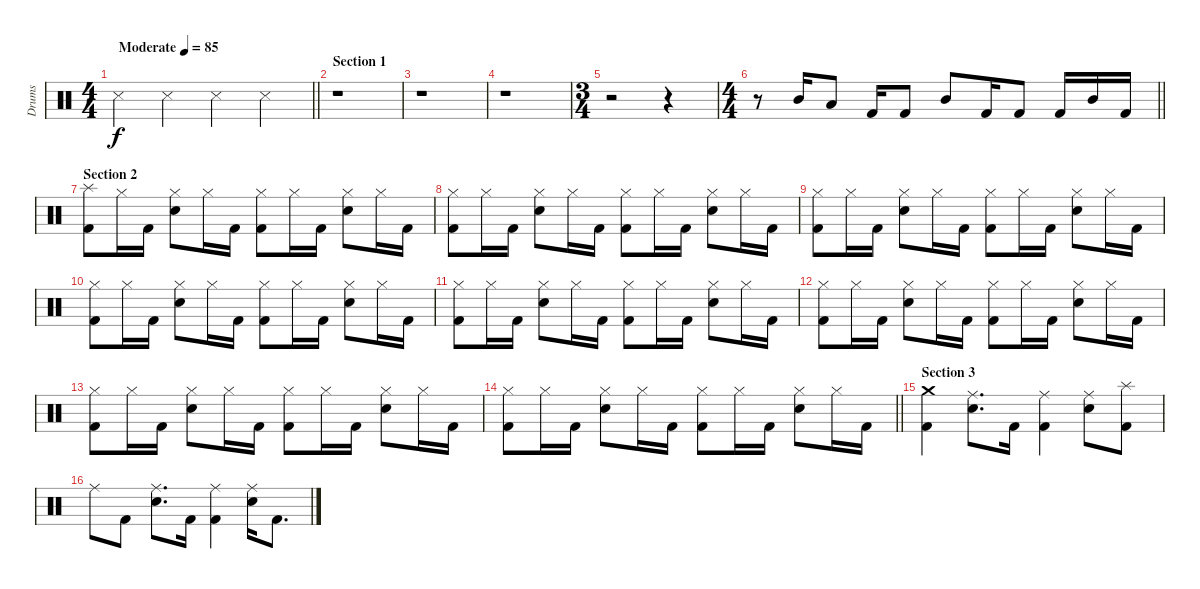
\track ("Drums" "Drums") {instrument percussion}
\staff {score}
\articulation defaults
\ts (4 4)
\tempo (85 "Moderate")
\clef neutral
\barLineRight lightlight
\ks c "Metronome (hit)".4{dy f} "Metronome (hit)".4 "Metronome (hit)".4 "Metronome (hit)".4
|
\section ("" "Section 1")
r.1 |
r.1 |
r.1 |
\ts (3 4)
r.2 r.4 |
\ts (4 4)
\barLineRight lightlight
r.8 "Mid Tom (hit)".16 "Low Tom (hit)".8 "Kick (hit) 2".16 "Kick (hit) 2".8 "Mid Tom (hit)".8 "Kick (hit) 2".16 "Kick (hit) 2".8 "Kick (hit) 2".16 "Mid Tom (hit)".16 "Kick (hit) 2".16 |
\section ("" "Section 2")
("Splash (hit)" "Kick (hit) 2").8 "Hi-Hat (closed)".16 "Kick (hit) 2".16 ("Hi-Hat (closed)" "Snare (hit) 2").8 "Hi-Hat (closed)".16 "Kick (hit) 2".16 ("Hi-Hat (closed)" "Kick (hit) 2").8 "Hi-Hat (closed)".16 "Kick (hit) 2".16 ("Hi-Hat (closed)" "Snare (hit) 2").8 "Hi-Hat (closed)".16 "Kick (hit) 2".16 |
("Hi-Hat (closed)" "Kick (hit) 2").8 "Hi-Hat (closed)".16 "Kick (hit) 2".16 ("Hi-Hat (closed)" "Snare (hit) 2").8 "Hi-Hat (closed)".16 "Kick (hit) 2".16 ("Hi-Hat (closed)" "Kick (hit) 2").8 "Hi-Hat (closed)".16 "Kick (hit) 2".16 ("Hi-Hat (closed)" "Snare (hit) 2").8 "Hi-Hat (closed)".16 "Kick (hit) 2".16 |
("Hi-Hat (closed)" "Kick (hit) 2").8 "Hi-Hat (closed)".16 "Kick (hit) 2".16 ("Hi-Hat (closed)" "Snare (hit) 2").8 "Hi-Hat (closed)".16 "Kick (hit) 2".16 ("Hi-Hat (closed)" "Kick (hit) 2").8 "Hi-Hat (closed)".16 "Kick (hit) 2".16 ("Hi-Hat (closed)" "Snare (hit) 2").8 "Hi-Hat (closed)".16 "Kick (hit) 2".16 |
("Hi-Hat (closed)" "Kick (hit) 2").8 "Hi-Hat (closed)".16 "Kick (hit) 2".16 ("Hi-Hat (closed)" "Snare (hit) 2").8 "Hi-Hat (closed)".16 "Kick (hit) 2".16 ("Hi-Hat (closed)" "Kick (hit) 2").8 "Hi-Hat (closed)".16 "Kick (hit) 2".16 ("Hi-Hat (closed)" "Snare (hit) 2").8 "Hi-Hat (closed)".16 "Kick (hit) 2".16 |
("Hi-Hat (closed)" "Kick (hit) 2").8 "Hi-Hat (closed)".16 "Kick (hit) 2".16 ("Hi-Hat (closed)" "Snare (hit) 2").8 "Hi-Hat (closed)".16 "Kick (hit) 2".16 ("Hi-Hat (closed)" "Kick (hit) 2").8 "Hi-Hat (closed)".16 "Kick (hit) 2".16 ("Hi-Hat (closed)" "Snare (hit) 2").8 "Hi-Hat (closed)".16 "Kick (hit) 2".16 |
("Hi-Hat (closed)" "Kick (hit) 2").8 "Hi-Hat (closed)".16 "Kick (hit) 2".16 ("Hi-Hat (closed)" "Snare (hit) 2").8 "Hi-Hat (closed)".16 "Kick (hit) 2".16 ("Hi-Hat (closed)" "Kick (hit) 2").8 "Hi-Hat (closed)".16 "Kick (hit) 2".16 ("Hi-Hat (closed)" "Snare (hit) 2").8 "Hi-Hat (closed)".16 "Kick (hit) 2".16 |
("Hi-Hat (closed)" "Kick (hit) 2").8 "Hi-Hat (closed)".16 "Kick (hit) 2".16 ("Hi-Hat (closed)" "Snare (hit) 2").8 "Hi-Hat (closed)".16 "Kick (hit) 2".16 ("Hi-Hat (closed)" "Kick (hit) 2").8 "Hi-Hat (closed)".16 "Kick (hit) 2".16 ("Hi-Hat (closed)" "Snare (hit) 2").8 "Hi-Hat (closed)".16 "Kick (hit) 2".16 |
\barLineRight lightlight
("Hi-Hat (closed)" "Kick (hit) 2").8 "Hi-Hat (closed)".16 "Kick (hit) 2".16 ("Hi-Hat (closed)" "Snare (hit) 2").8 "Hi-Hat (closed)".16 "Kick (hit) 2".16 ("Hi-Hat (closed)" "Kick (hit) 2").8 "Hi-Hat (closed)".16 "Kick (hit) 2".16 ("Hi-Hat (closed)" "Snare (hit) 2").8 "Hi-Hat (closed)".16 "Kick (hit) 2".16 |
\section ("" "Section 3")
("Crash medium (hit)" "Kick (hit) 2").4 ("Ride (middle)" "Snare (hit) 2").8{d} "Kick (hit) 2".16 ("Ride (middle)" "Kick (hit) 2").4 ("Ride (middle)" "Snare (hit) 2").8 ("Splash (hit)" "Kick (hit) 2").8 |
"Ride (middle)".8 "Kick (hit) 2".8 ("Ride (middle)" "Snare (hit) 2").8{d} "Kick (hit) 2".16 ("Ride (middle)" "Kick (hit) 2").4 ("Ride (middle)" "Snare (hit) 2").16 "Kick (hit) 2".8{d}
